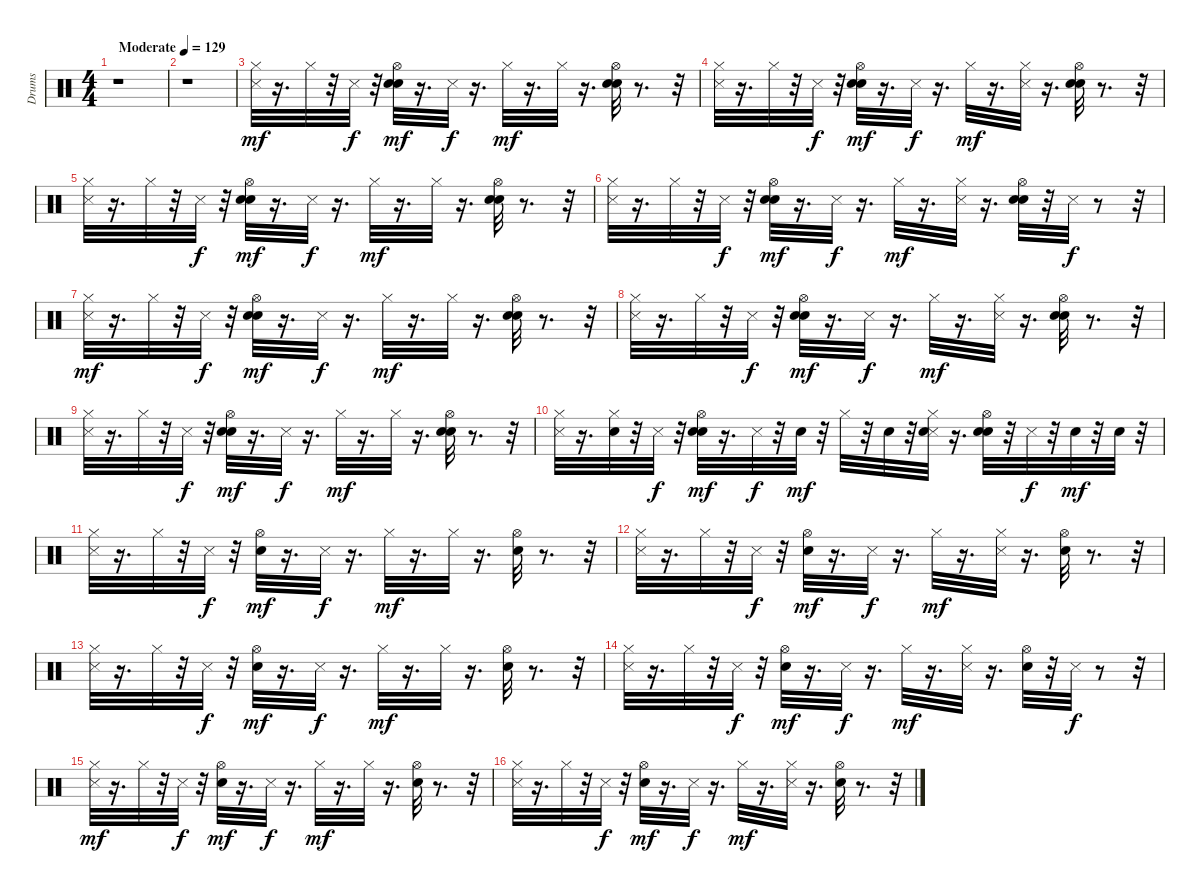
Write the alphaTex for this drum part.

\track ("Drums" "Drums") {instrument percussion}
\staff {score}
\articulation defaults
\ts (4 4)
\tempo (129 "Moderate")
\clef neutral
\ks c
r.1{dy mf} |
r.1 |
("Hi-Hat (closed)" "Metronome (hit)").32 r.16{d} "Hi-Hat (closed)".32 r.32 "Metronome (hit)".32{dy f} r.32 ("Snare (hit)" "Hi-Hat (open)" "Hand Clap (hit)").32{dy mf} r.16{d} "Metronome (hit)".32{dy f} r.16{d} "Hi-Hat (closed)".32{dy mf} r.16{d} "Hi-Hat (closed)".32 r.16{d} ("Snare (hit)" "Hi-Hat (open)" "Hand Clap (hit)").32 r.8{d} r.32 |
("Metronome (hit)" "Hi-Hat (closed)").32 r.16{d} "Hi-Hat (closed)".32 r.32 "Metronome (hit)".32{dy f} r.32 ("Snare (hit)" "Hi-Hat (open)" "Hand Clap (hit)").32{dy mf} r.16{d} "Metronome (hit)".32{dy f} r.16{d} "Hi-Hat (closed)".32{dy mf} r.16{d} ("Metronome (hit)" "Hi-Hat (closed)").32 r.16{d} ("Snare (hit)" "Hi-Hat (open)" "Hand Clap (hit)").32 r.8{d} r.32 |
("Hi-Hat (closed)" "Metronome (hit)").32 r.16{d} "Hi-Hat (closed)".32 r.32 "Metronome (hit)".32{dy f} r.32 ("Snare (hit)" "Hi-Hat (open)" "Hand Clap (hit)").32{dy mf} r.16{d} "Metronome (hit)".32{dy f} r.16{d} "Hi-Hat (closed)".32{dy mf} r.16{d} "Hi-Hat (closed)".32 r.16{d} ("Snare (hit)" "Hi-Hat (open)" "Hand Clap (hit)").32 r.8{d} r.32 |
("Metronome (hit)" "Hi-Hat (closed)").32 r.16{d} "Hi-Hat (closed)".32 r.32 "Metronome (hit)".32{dy f} r.32 ("Snare (hit)" "Hi-Hat (open)" "Hand Clap (hit)").32{dy mf} r.16{d} "Metronome (hit)".32{dy f} r.16{d} "Hi-Hat (closed)".32{dy mf} r.16{d} ("Metronome (hit)" "Hi-Hat (closed)").32 r.16{d} ("Snare (hit)" "Hi-Hat (open)" "Hand Clap (hit)").32 r.32 "Metronome (hit)".32{dy f} r.8 r.32 |
("Hi-Hat (closed)" "Metronome (hit)").32{dy mf} r.16{d} "Hi-Hat (closed)".32 r.32 "Metronome (hit)".32{dy f} r.32 ("Snare (hit)" "Hi-Hat (open)" "Hand Clap (hit)").32{dy mf} r.16{d} "Metronome (hit)".32{dy f} r.16{d} "Hi-Hat (closed)".32{dy mf} r.16{d} "Hi-Hat (closed)".32 r.16{d} ("Snare (hit)" "Hi-Hat (open)" "Hand Clap (hit)").32 r.8{d} r.32 |
("Metronome (hit)" "Hi-Hat (closed)").32 r.16{d} "Hi-Hat (closed)".32 r.32 "Metronome (hit)".32{dy f} r.32 ("Snare (hit)" "Hi-Hat (open)" "Hand Clap (hit)").32{dy mf} r.16{d} "Metronome (hit)".32{dy f} r.16{d} "Hi-Hat (closed)".32{dy mf} r.16{d} ("Metronome (hit)" "Hi-Hat (closed)").32 r.16{d} ("Snare (hit)" "Hi-Hat (open)" "Hand Clap (hit)").32 r.8{d} r.32 |
("Hi-Hat (closed)" "Metronome (hit)").32 r.16{d} "Hi-Hat (closed)".32 r.32 "Metronome (hit)".32{dy f} r.32 ("Snare (hit)" "Hi-Hat (open)" "Hand Clap (hit)").32{dy mf} r.16{d} "Metronome (hit)".32{dy f} r.16{d} "Hi-Hat (closed)".32{dy mf} r.16{d} "Hi-Hat (closed)".32 r.16{d} ("Snare (hit)" "Hi-Hat (open)" "Hand Clap (hit)").32 r.8{d} r.32 |
("Metronome (hit)" "Hi-Hat (closed)").32 r.16{d} ("Hi-Hat (closed)" "Hand Clap (hit)").32 r.32 "Metronome (hit)".32{dy f} r.32 ("Snare (hit)" "Hi-Hat (open)" "Hand Clap (hit)").32{dy mf} r.16{d} "Metronome (hit)".32{dy f} r.32 "Hand Clap (hit)".32{dy mf} r.32 "Hi-Hat (closed)".32 r.32 "Hand Clap (hit)".32 r.32 ("Metronome (hit)" "Hi-Hat (closed)" "Hand Clap (hit)").32 r.16{d} ("Snare (hit)" "Hi-Hat (open)" "Hand Clap (hit)").32 r.32 "Metronome (hit)".32{dy f} r.32 "Hand Clap (hit)".32{dy mf} r.32 "Hand Clap (hit)".32 r.32 |
("Hi-Hat (closed)" "Metronome (hit)").32 r.16{d} "Hi-Hat (closed)".32 r.32 "Metronome (hit)".32{dy f} r.32 ("Snare (hit)" "Hi-Hat (open)").32{dy mf} r.16{d} "Metronome (hit)".32{dy f} r.16{d} "Hi-Hat (closed)".32{dy mf} r.16{d} "Hi-Hat (closed)".32 r.16{d} ("Snare (hit)" "Hi-Hat (open)").32 r.8{d} r.32 |
("Metronome (hit)" "Hi-Hat (closed)").32 r.16{d} "Hi-Hat (closed)".32 r.32 "Metronome (hit)".32{dy f} r.32 ("Snare (hit)" "Hi-Hat (open)").32{dy mf} r.16{d} "Metronome (hit)".32{dy f} r.16{d} "Hi-Hat (closed)".32{dy mf} r.16{d} ("Metronome (hit)" "Hi-Hat (closed)").32 r.16{d} ("Snare (hit)" "Hi-Hat (open)").32 r.8{d} r.32 |
("Hi-Hat (closed)" "Metronome (hit)").32 r.16{d} "Hi-Hat (closed)".32 r.32 "Metronome (hit)".32{dy f} r.32 ("Snare (hit)" "Hi-Hat (open)").32{dy mf} r.16{d} "Metronome (hit)".32{dy f} r.16{d} "Hi-Hat (closed)".32{dy mf} r.16{d} "Hi-Hat (closed)".32 r.16{d} ("Snare (hit)" "Hi-Hat (open)").32 r.8{d} r.32 |
("Metronome (hit)" "Hi-Hat (closed)").32 r.16{d} "Hi-Hat (closed)".32 r.32 "Metronome (hit)".32{dy f} r.32 ("Snare (hit)" "Hi-Hat (open)").32{dy mf} r.16{d} "Metronome (hit)".32{dy f} r.16{d} "Hi-Hat (closed)".32{dy mf} r.16{d} ("Metronome (hit)" "Hi-Hat (closed)").32 r.16{d} ("Snare (hit)" "Hi-Hat (open)").32 r.32 "Metronome (hit)".32{dy f} r.8 r.32 |
("Hi-Hat (closed)" "Metronome (hit)").32{dy mf} r.16{d} "Hi-Hat (closed)".32 r.32 "Metronome (hit)".32{dy f} r.32 ("Snare (hit)" "Hi-Hat (open)").32{dy mf} r.16{d} "Metronome (hit)".32{dy f} r.16{d} "Hi-Hat (closed)".32{dy mf} r.16{d} "Hi-Hat (closed)".32 r.16{d} ("Snare (hit)" "Hi-Hat (open)").32 r.8{d} r.32 |
("Metronome (hit)" "Hi-Hat (closed)").32 r.16{d} "Hi-Hat (closed)".32 r.32 "Metronome (hit)".32{dy f} r.32 ("Snare (hit)" "Hi-Hat (open)").32{dy mf} r.16{d} "Metronome (hit)".32{dy f} r.16{d} "Hi-Hat (closed)".32{dy mf} r.16{d} ("Metronome (hit)" "Hi-Hat (closed)").32 r.16{d} ("Snare (hit)" "Hi-Hat (open)").32 r.8{d} r.32
